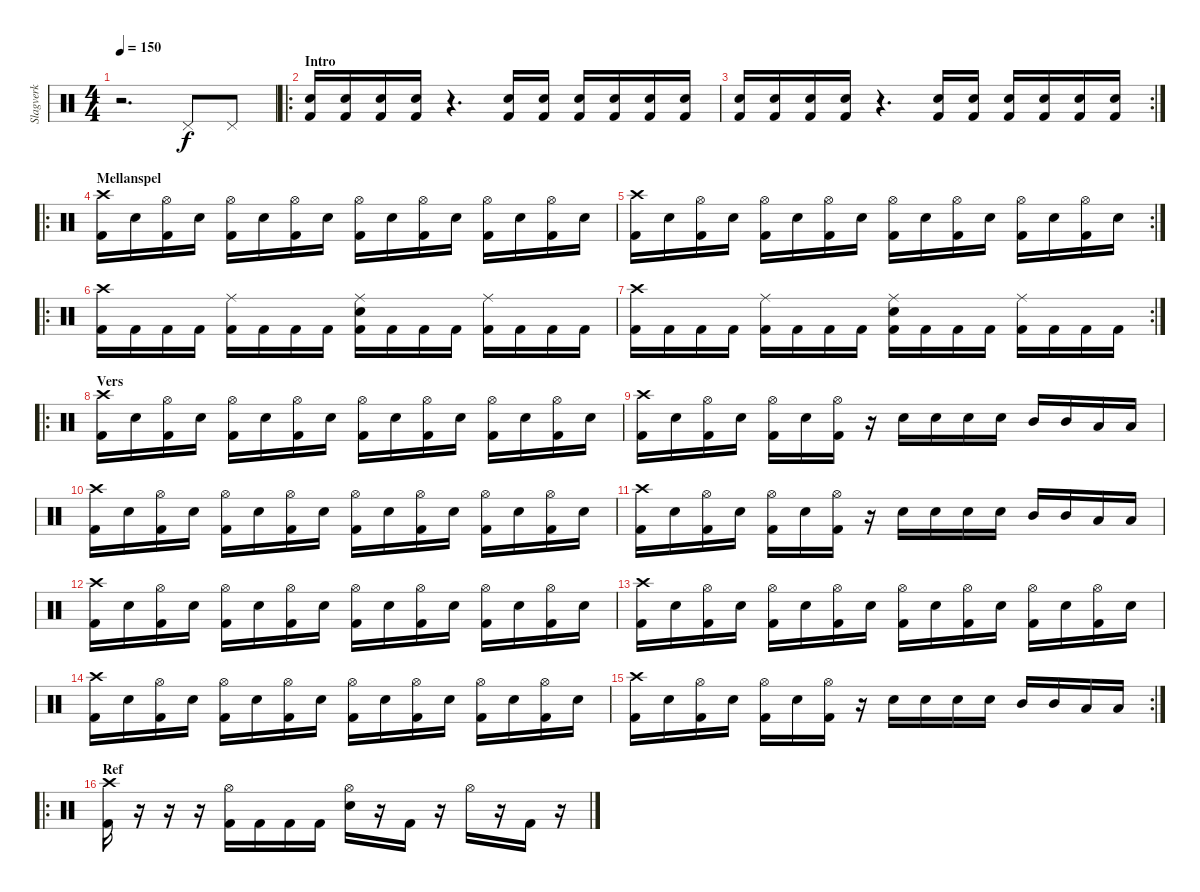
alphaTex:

\track ("Slagverk" "Slagverk") {instrument percussion}
\staff {score}
\articulation defaults
\ts (4 4)
\tempo 150
\clef neutral
\ks c
r.2{d dy f} "Pedal Hi-Hat (hit)".8 "Pedal Hi-Hat (hit)".8 |
\ro
\section ("" "Intro")
("Snare (hit) 2" "Kick (hit) 2").16 ("Snare (hit) 2" "Kick (hit) 2").16 ("Snare (hit) 2" "Kick (hit) 2").16 ("Snare (hit) 2" "Kick (hit) 2").16 r.4{d} ("Snare (hit) 2" "Kick (hit) 2").16 ("Snare (hit) 2" "Kick (hit) 2").16 ("Snare (hit) 2" "Kick (hit) 2").16 ("Snare (hit) 2" "Kick (hit) 2").16 ("Snare (hit) 2" "Kick (hit) 2").16 ("Snare (hit) 2" "Kick (hit) 2").16 |
\rc 2
("Snare (hit) 2" "Kick (hit) 2").16 ("Snare (hit) 2" "Kick (hit) 2").16 ("Snare (hit) 2" "Kick (hit) 2").16 ("Snare (hit) 2" "Kick (hit) 2").16 r.4{d} ("Snare (hit) 2" "Kick (hit) 2").16 ("Snare (hit) 2" "Kick (hit) 2").16 ("Snare (hit) 2" "Kick (hit) 2").16 ("Snare (hit) 2" "Kick (hit) 2").16 ("Snare (hit) 2" "Kick (hit) 2").16 ("Snare (hit) 2" "Kick (hit) 2").16 |
\ro
\section ("" "Mellanspel")
("Kick (hit) 2" "Crash high (hit)").16 "Snare (hit) 2".16 ("Kick (hit) 2" "Hi-Hat (open)").16 "Snare (hit) 2".16 ("Kick (hit) 2" "Hi-Hat (open)").16 "Snare (hit) 2".16 ("Kick (hit) 2" "Hi-Hat (open)").16 "Snare (hit) 2".16 ("Kick (hit) 2" "Hi-Hat (open)").16 "Snare (hit) 2".16 ("Kick (hit) 2" "Hi-Hat (open)").16 "Snare (hit) 2".16 ("Kick (hit) 2" "Hi-Hat (open)").16 "Snare (hit) 2".16 ("Kick (hit) 2" "Hi-Hat (open)").16 "Snare (hit) 2".16 |
\rc 2
("Kick (hit) 2" "Crash high (hit)").16 "Snare (hit) 2".16 ("Kick (hit) 2" "Hi-Hat (open)").16 "Snare (hit) 2".16 ("Kick (hit) 2" "Hi-Hat (open)").16 "Snare (hit) 2".16 ("Kick (hit) 2" "Hi-Hat (open)").16 "Snare (hit) 2".16 ("Kick (hit) 2" "Hi-Hat (open)").16 "Snare (hit) 2".16 ("Kick (hit) 2" "Hi-Hat (open)").16 "Snare (hit) 2".16 ("Kick (hit) 2" "Hi-Hat (open)").16 "Snare (hit) 2".16 ("Kick (hit) 2" "Hi-Hat (open)").16 "Snare (hit) 2".16 |
\ro
("Kick (hit) 2" "Crash high (hit)").16 "Kick (hit) 2".16 "Kick (hit) 2".16 "Kick (hit) 2".16 ("Kick (hit) 2" "Ride (middle)").16 "Kick (hit) 2".16 "Kick (hit) 2".16 "Kick (hit) 2".16 ("Kick (hit) 2" "Snare (hit) 2" "Ride (middle)").16 "Kick (hit) 2".16 "Kick (hit) 2".16 "Kick (hit) 2".16 ("Kick (hit) 2" "Ride (middle)").16 "Kick (hit) 2".16 "Kick (hit) 2".16 "Kick (hit) 2".16 |
\rc 2
("Kick (hit) 2" "Crash high (hit)").16 "Kick (hit) 2".16 "Kick (hit) 2".16 "Kick (hit) 2".16 ("Kick (hit) 2" "Ride (middle)").16 "Kick (hit) 2".16 "Kick (hit) 2".16 "Kick (hit) 2".16 ("Kick (hit) 2" "Snare (hit) 2" "Ride (middle)").16 "Kick (hit) 2".16 "Kick (hit) 2".16 "Kick (hit) 2".16 ("Kick (hit) 2" "Ride (middle)").16 "Kick (hit) 2".16 "Kick (hit) 2".16 "Kick (hit) 2".16 |
\ro
\section ("" "Vers")
("Kick (hit) 2" "Crash high (hit)").16 "Snare (hit) 2".16 ("Kick (hit) 2" "Hi-Hat (open)").16 "Snare (hit) 2".16 ("Kick (hit) 2" "Hi-Hat (open)").16 "Snare (hit) 2".16 ("Kick (hit) 2" "Hi-Hat (open)").16 "Snare (hit) 2".16 ("Kick (hit) 2" "Hi-Hat (open)").16 "Snare (hit) 2".16 ("Kick (hit) 2" "Hi-Hat (open)").16 "Snare (hit) 2".16 ("Kick (hit) 2" "Hi-Hat (open)").16 "Snare (hit) 2".16 ("Kick (hit) 2" "Hi-Hat (open)").16 "Snare (hit) 2".16 |
("Kick (hit) 2" "Crash high (hit)").16 "Snare (hit) 2".16 ("Kick (hit) 2" "Hi-Hat (open)").16 "Snare (hit) 2".16 ("Kick (hit) 2" "Hi-Hat (open)").16 "Snare (hit) 2".16 ("Kick (hit) 2" "Hi-Hat (open)").16 r.16 "Snare (hit) 2".16 "Snare (hit) 2".16 "Snare (hit) 2".16 "Snare (hit) 2".16 "Mid Tom (hit)".16 "Mid Tom (hit)".16 "Low Tom (hit)".16 "Low Tom (hit)".16 |
("Kick (hit) 2" "Crash high (hit)").16 "Snare (hit) 2".16 ("Kick (hit) 2" "Hi-Hat (open)").16 "Snare (hit) 2".16 ("Kick (hit) 2" "Hi-Hat (open)").16 "Snare (hit) 2".16 ("Kick (hit) 2" "Hi-Hat (open)").16 "Snare (hit) 2".16 ("Kick (hit) 2" "Hi-Hat (open)").16 "Snare (hit) 2".16 ("Kick (hit) 2" "Hi-Hat (open)").16 "Snare (hit) 2".16 ("Kick (hit) 2" "Hi-Hat (open)").16 "Snare (hit) 2".16 ("Kick (hit) 2" "Hi-Hat (open)").16 "Snare (hit) 2".16 |
("Kick (hit) 2" "Crash high (hit)").16 "Snare (hit) 2".16 ("Kick (hit) 2" "Hi-Hat (open)").16 "Snare (hit) 2".16 ("Kick (hit) 2" "Hi-Hat (open)").16 "Snare (hit) 2".16 ("Kick (hit) 2" "Hi-Hat (open)").16 r.16 "Snare (hit) 2".16 "Snare (hit) 2".16 "Snare (hit) 2".16 "Snare (hit) 2".16 "Mid Tom (hit)".16 "Mid Tom (hit)".16 "Low Tom (hit)".16 "Low Tom (hit)".16 |
("Kick (hit) 2" "Crash high (hit)").16 "Snare (hit) 2".16 ("Kick (hit) 2" "Hi-Hat (open)").16 "Snare (hit) 2".16 ("Kick (hit) 2" "Hi-Hat (open)").16 "Snare (hit) 2".16 ("Kick (hit) 2" "Hi-Hat (open)").16 "Snare (hit) 2".16 ("Kick (hit) 2" "Hi-Hat (open)").16 "Snare (hit) 2".16 ("Kick (hit) 2" "Hi-Hat (open)").16 "Snare (hit) 2".16 ("Kick (hit) 2" "Hi-Hat (open)").16 "Snare (hit) 2".16 ("Kick (hit) 2" "Hi-Hat (open)").16 "Snare (hit) 2".16 |
("Kick (hit) 2" "Crash high (hit)").16 "Snare (hit) 2".16 ("Kick (hit) 2" "Hi-Hat (open)").16 "Snare (hit) 2".16 ("Kick (hit) 2" "Hi-Hat (open)").16 "Snare (hit) 2".16 ("Kick (hit) 2" "Hi-Hat (open)").16 "Snare (hit) 2".16 ("Kick (hit) 2" "Hi-Hat (open)").16 "Snare (hit) 2".16 ("Kick (hit) 2" "Hi-Hat (open)").16 "Snare (hit) 2".16 ("Kick (hit) 2" "Hi-Hat (open)").16 "Snare (hit) 2".16 ("Kick (hit) 2" "Hi-Hat (open)").16 "Snare (hit) 2".16 |
("Kick (hit) 2" "Crash high (hit)").16 "Snare (hit) 2".16 ("Kick (hit) 2" "Hi-Hat (open)").16 "Snare (hit) 2".16 ("Kick (hit) 2" "Hi-Hat (open)").16 "Snare (hit) 2".16 ("Kick (hit) 2" "Hi-Hat (open)").16 "Snare (hit) 2".16 ("Kick (hit) 2" "Hi-Hat (open)").16 "Snare (hit) 2".16 ("Kick (hit) 2" "Hi-Hat (open)").16 "Snare (hit) 2".16 ("Kick (hit) 2" "Hi-Hat (open)").16 "Snare (hit) 2".16 ("Kick (hit) 2" "Hi-Hat (open)").16 "Snare (hit) 2".16 |
\rc 2
("Kick (hit) 2" "Crash high (hit)").16 "Snare (hit) 2".16 ("Kick (hit) 2" "Hi-Hat (open)").16 "Snare (hit) 2".16 ("Kick (hit) 2" "Hi-Hat (open)").16 "Snare (hit) 2".16 ("Kick (hit) 2" "Hi-Hat (open)").16 r.16 "Snare (hit) 2".16 "Snare (hit) 2".16 "Snare (hit) 2".16 "Snare (hit) 2".16 "Mid Tom (hit)".16 "Mid Tom (hit)".16 "Low Tom (hit)".16 "Low Tom (hit)".16 |
\ro
\section ("" "Ref")
("Kick (hit) 2" "Crash high (hit)").16 r.16 r.16 r.16 ("Kick (hit) 2" "Hi-Hat (open)").16 "Kick (hit) 2".16 "Kick (hit) 2".16 "Kick (hit) 2".16 ("Snare (hit) 2" "Hi-Hat (open)").16 r.16 "Kick (hit) 2".16 r.16 "Hi-Hat (open)".16 r.16 "Kick (hit) 2".16 r.16
